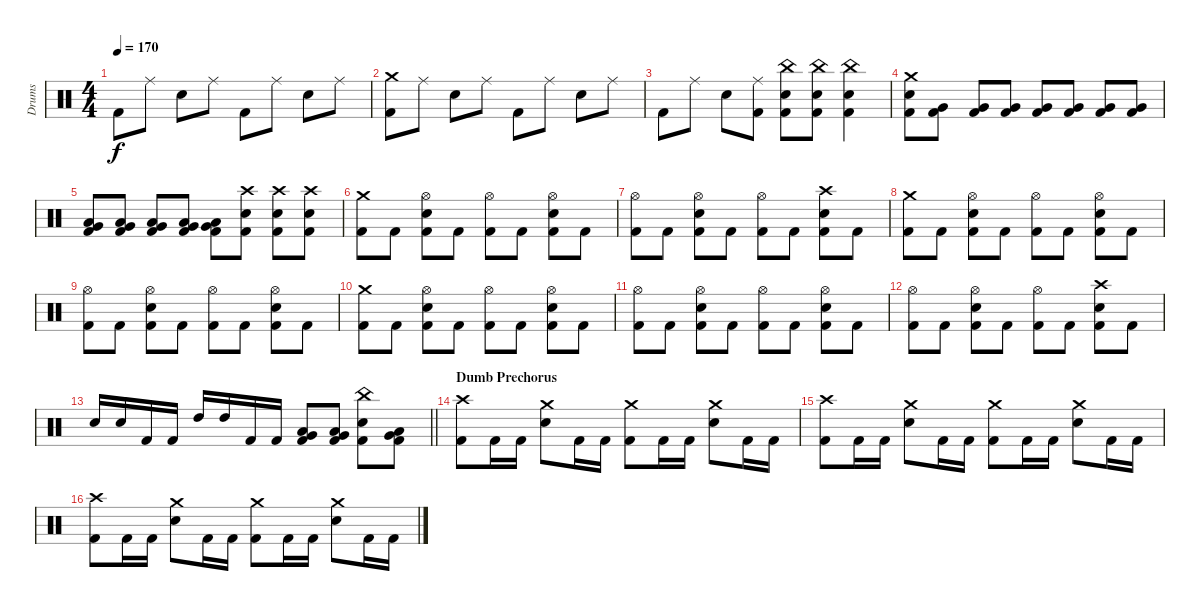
\track ("Drums" "Drums") {instrument percussion}
\staff {score}
\articulation defaults
\ts (4 4)
\tempo 170
\clef neutral
\ks c "Kick (hit) 2".8{dy f} "Ride (middle)".8 "Snare (hit) 2".8 "Ride (middle)".8 "Kick (hit) 2".8 "Ride (middle)".8 "Snare (hit) 2".8 "Ride (middle)".8
|
("Crash medium (hit)" "Kick (hit) 2").8 "Ride (middle)".8 "Snare (hit) 2".8 "Ride (middle)".8 "Kick (hit) 2".8 "Ride (middle)".8 "Snare (hit) 2".8 "Ride (middle)".8 |
"Kick (hit) 2".8 "Ride (middle)".8 "Snare (hit) 2".8 ("Ride (middle)" "Kick (hit) 2").8 ("China (hit)" "Snare (hit) 2" "Kick (hit) 2").8 ("China (hit)" "Snare (hit) 2" "Kick (hit) 2").8 ("China (hit)" "Snare (hit) 2" "Kick (hit) 2").4 |
("Crash medium (hit)" "Snare (hit) 2" "Kick (hit) 2").8 ("Very Low Tom (hit)" "Kick (hit) 2").8 ("Very Low Tom (hit)" "Kick (hit) 2").8 ("Very Low Tom (hit)" "Kick (hit) 2").8 ("Very Low Tom (hit)" "Kick (hit) 2").8 ("Very Low Tom (hit)" "Kick (hit) 2").8 ("Very Low Tom (hit)" "Kick (hit) 2").8 ("Very Low Tom (hit)" "Kick (hit) 2").8 |
("Low Tom (hit)" "Very Low Tom (hit)" "Kick (hit) 2").8 ("Low Tom (hit)" "Very Low Tom (hit)" "Kick (hit) 2").8 ("Low Tom (hit)" "Very Low Tom (hit)" "Kick (hit) 2").8 ("Low Tom (hit)" "Very Low Tom (hit)" "Kick (hit) 2").8 ("Low Tom (hit)" "Very Low Tom (hit)" "Kick (hit) 2").8 ("Crash high (hit)" "Snare (hit) 2" "Kick (hit) 2").8 ("Crash high (hit)" "Snare (hit) 2" "Kick (hit) 2").8 ("Crash high (hit)" "Snare (hit) 2" "Kick (hit) 2").8 |
("Crash medium (hit)" "Kick (hit) 2").8 "Kick (hit) 2".8 ("Hi-Hat (open)" "Snare (hit) 2" "Kick (hit) 2").8 "Kick (hit) 2".8 ("Hi-Hat (open)" "Kick (hit) 2").8 "Kick (hit) 2".8 ("Hi-Hat (open)" "Snare (hit) 2" "Kick (hit) 2").8 "Kick (hit) 2".8 |
("Hi-Hat (open)" "Kick (hit) 2").8 "Kick (hit) 2".8 ("Hi-Hat (open)" "Snare (hit) 2" "Kick (hit) 2").8 "Kick (hit) 2".8 ("Hi-Hat (open)" "Kick (hit) 2").8 "Kick (hit) 2".8 ("Crash high (hit)" "Snare (hit) 2" "Kick (hit) 2").8 "Kick (hit) 2".8 |
("Crash medium (hit)" "Kick (hit) 2").8 "Kick (hit) 2".8 ("Hi-Hat (open)" "Snare (hit) 2" "Kick (hit) 2").8 "Kick (hit) 2".8 ("Hi-Hat (open)" "Kick (hit) 2").8 "Kick (hit) 2".8 ("Hi-Hat (open)" "Snare (hit) 2" "Kick (hit) 2").8 "Kick (hit) 2".8 |
("Hi-Hat (open)" "Kick (hit) 2").8 "Kick (hit) 2".8 ("Hi-Hat (open)" "Snare (hit) 2" "Kick (hit) 2").8 "Kick (hit) 2".8 ("Hi-Hat (open)" "Kick (hit) 2").8 "Kick (hit) 2".8 ("Hi-Hat (open)" "Snare (hit) 2" "Kick (hit) 2").8 "Kick (hit) 2".8 |
("Crash medium (hit)" "Kick (hit) 2").8 "Kick (hit) 2".8 ("Hi-Hat (open)" "Snare (hit) 2" "Kick (hit) 2").8 "Kick (hit) 2".8 ("Hi-Hat (open)" "Kick (hit) 2").8 "Kick (hit) 2".8 ("Hi-Hat (open)" "Snare (hit) 2" "Kick (hit) 2").8 "Kick (hit) 2".8 |
("Hi-Hat (open)" "Kick (hit) 2").8 "Kick (hit) 2".8 ("Hi-Hat (open)" "Snare (hit) 2" "Kick (hit) 2").8 "Kick (hit) 2".8 ("Hi-Hat (open)" "Kick (hit) 2").8 "Kick (hit) 2".8 ("Hi-Hat (open)" "Snare (hit) 2" "Kick (hit) 2").8 "Kick (hit) 2".8 |
("Hi-Hat (open)" "Kick (hit) 2").8 "Kick (hit) 2".8 ("Hi-Hat (open)" "Snare (hit) 2" "Kick (hit) 2").8 "Kick (hit) 2".8 ("Hi-Hat (open)" "Kick (hit) 2").8 "Kick (hit) 2".8 ("Crash high (hit)" "Snare (hit) 2" "Kick (hit) 2").8 "Kick (hit) 2".8 |
\barLineRight lightlight "Snare (hit) 2".16 "Snare (hit) 2".16 "Kick (hit) 2".16 "Kick (hit) 2".16 "High Tom (hit)".16 "High Tom (hit)".16 "Kick (hit) 2".16 "Kick (hit) 2".16
("Low Tom (hit)" "Very Low Tom (hit)" "Kick (hit) 2").8 ("Low Tom (hit)" "Very Low Tom (hit)" "Kick (hit) 2").8 ("China (hit)" "Snare (hit) 2" "Kick (hit) 2").8 ("Low Tom (hit)" "Very Low Tom (hit)" "Kick (hit) 2").8 |
\section ("" "Dumb Prechorus")
("Crash high (hit)" "Kick (hit) 2").8 "Kick (hit) 2".16 "Kick (hit) 2".16 ("Crash medium (hit)" "Snare (hit) 2").8 "Kick (hit) 2".16 "Kick (hit) 2".16 ("Crash medium (hit)" "Kick (hit) 2").8 "Kick (hit) 2".16 "Kick (hit) 2".16 ("Crash medium (hit)" "Snare (hit) 2").8 "Kick (hit) 2".16 "Kick (hit) 2".16 |
("Crash high (hit)" "Kick (hit) 2").8 "Kick (hit) 2".16 "Kick (hit) 2".16 ("Crash medium (hit)" "Snare (hit) 2").8 "Kick (hit) 2".16 "Kick (hit) 2".16 ("Crash medium (hit)" "Kick (hit) 2").8 "Kick (hit) 2".16 "Kick (hit) 2".16 ("Crash medium (hit)" "Snare (hit) 2").8 "Kick (hit) 2".16 "Kick (hit) 2".16 |
("Crash high (hit)" "Kick (hit) 2").8 "Kick (hit) 2".16 "Kick (hit) 2".16 ("Crash medium (hit)" "Snare (hit) 2").8 "Kick (hit) 2".16 "Kick (hit) 2".16 ("Crash medium (hit)" "Kick (hit) 2").8 "Kick (hit) 2".16 "Kick (hit) 2".16 ("Crash medium (hit)" "Snare (hit) 2").8 "Kick (hit) 2".16 "Kick (hit) 2".16
